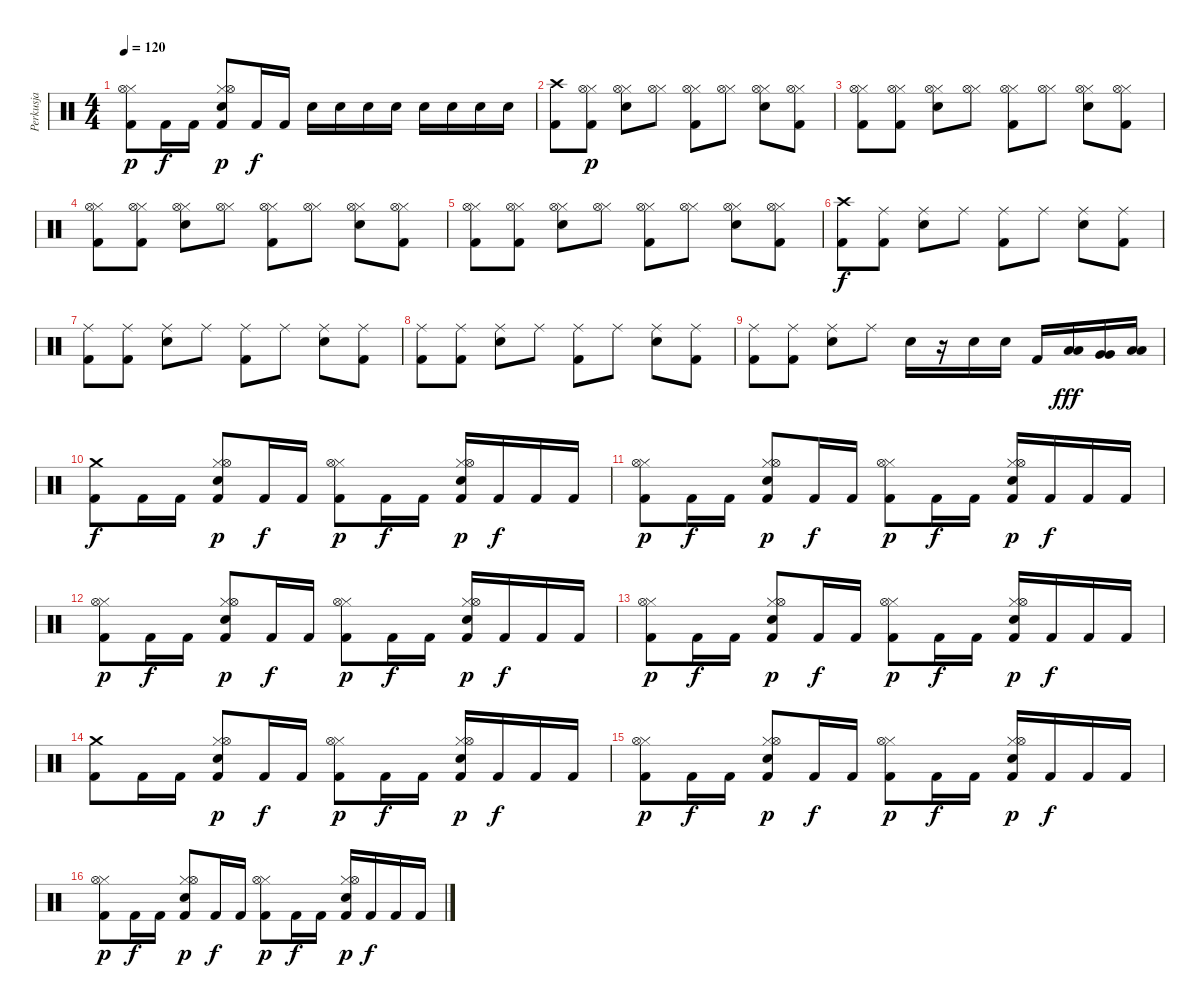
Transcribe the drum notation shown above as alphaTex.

\track ("Perkusja" "Perkusja") {instrument percussion}
\staff {score}
\articulation defaults
\ts (4 4)
\tempo 120
\clef neutral
\ks c
("Kick (hit) 2" "Hi-Hat (closed)" "Hi-Hat (open)").8{dy p} "Kick (hit) 2".16{dy f} "Kick (hit) 2".16 ("Kick (hit) 2" "Electric Snare (hit)" "Hi-Hat (closed)" "Hi-Hat (open)").8{dy p} "Kick (hit) 2".16{dy f} "Kick (hit) 2".16 "Electric Snare (hit)".16 "Electric Snare (hit)".16 "Electric Snare (hit)".16 "Electric Snare (hit)".16 "Electric Snare (hit)".16 "Electric Snare (hit)".16 "Electric Snare (hit)".16 "Electric Snare (hit)".16 |
("Kick (hit) 2" "Crash high (hit)").8 ("Kick (hit) 2" "Hi-Hat (closed)" "Hi-Hat (open)").8{dy p} ("Electric Snare (hit)" "Hi-Hat (closed)" "Hi-Hat (open)").8 ("Hi-Hat (closed)" "Hi-Hat (open)").8 ("Kick (hit) 2" "Hi-Hat (closed)" "Hi-Hat (open)").8 ("Hi-Hat (closed)" "Hi-Hat (open)").8 ("Electric Snare (hit)" "Hi-Hat (closed)" "Hi-Hat (open)").8 ("Kick (hit) 2" "Hi-Hat (closed)" "Hi-Hat (open)").8 |
("Kick (hit) 2" "Hi-Hat (closed)" "Hi-Hat (open)").8 ("Kick (hit) 2" "Hi-Hat (closed)" "Hi-Hat (open)").8 ("Electric Snare (hit)" "Hi-Hat (closed)" "Hi-Hat (open)").8 ("Hi-Hat (closed)" "Hi-Hat (open)").8 ("Kick (hit) 2" "Hi-Hat (closed)" "Hi-Hat (open)").8 ("Hi-Hat (closed)" "Hi-Hat (open)").8 ("Electric Snare (hit)" "Hi-Hat (closed)" "Hi-Hat (open)").8 ("Kick (hit) 2" "Hi-Hat (closed)" "Hi-Hat (open)").8 |
("Kick (hit) 2" "Hi-Hat (closed)" "Hi-Hat (open)").8 ("Kick (hit) 2" "Hi-Hat (closed)" "Hi-Hat (open)").8 ("Electric Snare (hit)" "Hi-Hat (closed)" "Hi-Hat (open)").8 ("Hi-Hat (closed)" "Hi-Hat (open)").8 ("Kick (hit) 2" "Hi-Hat (closed)" "Hi-Hat (open)").8 ("Hi-Hat (closed)" "Hi-Hat (open)").8 ("Electric Snare (hit)" "Hi-Hat (closed)" "Hi-Hat (open)").8 ("Kick (hit) 2" "Hi-Hat (closed)" "Hi-Hat (open)").8 |
("Kick (hit) 2" "Hi-Hat (closed)" "Hi-Hat (open)").8 ("Kick (hit) 2" "Hi-Hat (closed)" "Hi-Hat (open)").8 ("Electric Snare (hit)" "Hi-Hat (closed)" "Hi-Hat (open)").8 ("Hi-Hat (closed)" "Hi-Hat (open)").8 ("Kick (hit) 2" "Hi-Hat (closed)" "Hi-Hat (open)").8 ("Hi-Hat (closed)" "Hi-Hat (open)").8 ("Electric Snare (hit)" "Hi-Hat (closed)" "Hi-Hat (open)").8 ("Kick (hit) 2" "Hi-Hat (closed)" "Hi-Hat (open)").8 |
("Kick (hit) 2" "Crash high (hit)").8{dy f} ("Kick (hit) 2" "Ride (middle)").8 ("Electric Snare (hit)" "Ride (middle)").8 "Ride (middle)".8 ("Kick (hit) 2" "Ride (middle)").8 "Ride (middle)".8 ("Electric Snare (hit)" "Ride (middle)").8 ("Kick (hit) 2" "Ride (middle)").8 |
("Kick (hit) 2" "Ride (middle)").8 ("Kick (hit) 2" "Ride (middle)").8 ("Electric Snare (hit)" "Ride (middle)").8 "Ride (middle)".8 ("Kick (hit) 2" "Ride (middle)").8 "Ride (middle)".8 ("Electric Snare (hit)" "Ride (middle)").8 ("Kick (hit) 2" "Ride (middle)").8 |
("Kick (hit) 2" "Ride (middle)").8 ("Kick (hit) 2" "Ride (middle)").8 ("Electric Snare (hit)" "Ride (middle)").8 "Ride (middle)".8 ("Kick (hit) 2" "Ride (middle)").8 "Ride (middle)".8 ("Electric Snare (hit)" "Ride (middle)").8 ("Kick (hit) 2" "Ride (middle)").8 |
("Kick (hit) 2" "Ride (middle)").8 ("Kick (hit) 2" "Ride (middle)").8 ("Electric Snare (hit)" "Ride (middle)").8 "Ride (middle)".8 "Electric Snare (hit)".16 r.16 "Electric Snare (hit)".16 "Electric Snare (hit)".16 "Kick (hit) 2".16 ("Low Tom (hit)" "Low Tom (hit)").16{dy fff} ("Very Low Tom (hit)" "Very Low Tom (hit)").16 ("Low Floor Tom (hit)" "Low Floor Tom (hit)").16 |
("Kick (hit) 2" "Crash medium (hit)").8{dy f} "Kick (hit) 2".16 "Kick (hit) 2".16 ("Kick (hit) 2" "Electric Snare (hit)" "Hi-Hat (closed)" "Hi-Hat (open)").8{dy p} "Kick (hit) 2".16{dy f} "Kick (hit) 2".16 ("Kick (hit) 2" "Hi-Hat (closed)" "Hi-Hat (open)").8{dy p} "Kick (hit) 2".16{dy f} "Kick (hit) 2".16 ("Kick (hit) 2" "Electric Snare (hit)" "Hi-Hat (closed)" "Hi-Hat (open)").16{dy p} "Kick (hit) 2".16{dy f} "Kick (hit) 2".16 "Kick (hit) 2".16 |
("Kick (hit) 2" "Hi-Hat (closed)" "Hi-Hat (open)").8{dy p} "Kick (hit) 2".16{dy f} "Kick (hit) 2".16 ("Kick (hit) 2" "Electric Snare (hit)" "Hi-Hat (closed)" "Hi-Hat (open)").8{dy p} "Kick (hit) 2".16{dy f} "Kick (hit) 2".16 ("Kick (hit) 2" "Hi-Hat (closed)" "Hi-Hat (open)").8{dy p} "Kick (hit) 2".16{dy f} "Kick (hit) 2".16 ("Kick (hit) 2" "Electric Snare (hit)" "Hi-Hat (closed)" "Hi-Hat (open)").16{dy p} "Kick (hit) 2".16{dy f} "Kick (hit) 2".16 "Kick (hit) 2".16 |
("Kick (hit) 2" "Hi-Hat (closed)" "Hi-Hat (open)").8{dy p} "Kick (hit) 2".16{dy f} "Kick (hit) 2".16 ("Kick (hit) 2" "Electric Snare (hit)" "Hi-Hat (closed)" "Hi-Hat (open)").8{dy p} "Kick (hit) 2".16{dy f} "Kick (hit) 2".16 ("Kick (hit) 2" "Hi-Hat (closed)" "Hi-Hat (open)").8{dy p} "Kick (hit) 2".16{dy f} "Kick (hit) 2".16 ("Kick (hit) 2" "Electric Snare (hit)" "Hi-Hat (closed)" "Hi-Hat (open)").16{dy p} "Kick (hit) 2".16{dy f} "Kick (hit) 2".16 "Kick (hit) 2".16 |
("Kick (hit) 2" "Hi-Hat (closed)" "Hi-Hat (open)").8{dy p} "Kick (hit) 2".16{dy f} "Kick (hit) 2".16 ("Kick (hit) 2" "Electric Snare (hit)" "Hi-Hat (closed)" "Hi-Hat (open)").8{dy p} "Kick (hit) 2".16{dy f} "Kick (hit) 2".16 ("Kick (hit) 2" "Hi-Hat (closed)" "Hi-Hat (open)").8{dy p} "Kick (hit) 2".16{dy f} "Kick (hit) 2".16 ("Kick (hit) 2" "Electric Snare (hit)" "Hi-Hat (closed)" "Hi-Hat (open)").16{dy p} "Kick (hit) 2".16{dy f} "Kick (hit) 2".16 "Kick (hit) 2".16 |
("Kick (hit) 2" "Crash medium (hit)").8 "Kick (hit) 2".16 "Kick (hit) 2".16 ("Kick (hit) 2" "Electric Snare (hit)" "Hi-Hat (closed)" "Hi-Hat (open)").8{dy p} "Kick (hit) 2".16{dy f} "Kick (hit) 2".16 ("Kick (hit) 2" "Hi-Hat (closed)" "Hi-Hat (open)").8{dy p} "Kick (hit) 2".16{dy f} "Kick (hit) 2".16 ("Kick (hit) 2" "Electric Snare (hit)" "Hi-Hat (closed)" "Hi-Hat (open)").16{dy p} "Kick (hit) 2".16{dy f} "Kick (hit) 2".16 "Kick (hit) 2".16 |
("Kick (hit) 2" "Hi-Hat (closed)" "Hi-Hat (open)").8{dy p} "Kick (hit) 2".16{dy f} "Kick (hit) 2".16 ("Kick (hit) 2" "Electric Snare (hit)" "Hi-Hat (closed)" "Hi-Hat (open)").8{dy p} "Kick (hit) 2".16{dy f} "Kick (hit) 2".16 ("Kick (hit) 2" "Hi-Hat (closed)" "Hi-Hat (open)").8{dy p} "Kick (hit) 2".16{dy f} "Kick (hit) 2".16 ("Kick (hit) 2" "Electric Snare (hit)" "Hi-Hat (closed)" "Hi-Hat (open)").16{dy p} "Kick (hit) 2".16{dy f} "Kick (hit) 2".16 "Kick (hit) 2".16 |
("Kick (hit) 2" "Hi-Hat (closed)" "Hi-Hat (open)").8{dy p} "Kick (hit) 2".16{dy f} "Kick (hit) 2".16 ("Kick (hit) 2" "Electric Snare (hit)" "Hi-Hat (closed)" "Hi-Hat (open)").8{dy p} "Kick (hit) 2".16{dy f} "Kick (hit) 2".16 ("Kick (hit) 2" "Hi-Hat (closed)" "Hi-Hat (open)").8{dy p} "Kick (hit) 2".16{dy f} "Kick (hit) 2".16 ("Kick (hit) 2" "Electric Snare (hit)" "Hi-Hat (closed)" "Hi-Hat (open)").16{dy p} "Kick (hit) 2".16{dy f} "Kick (hit) 2".16 "Kick (hit) 2".16
